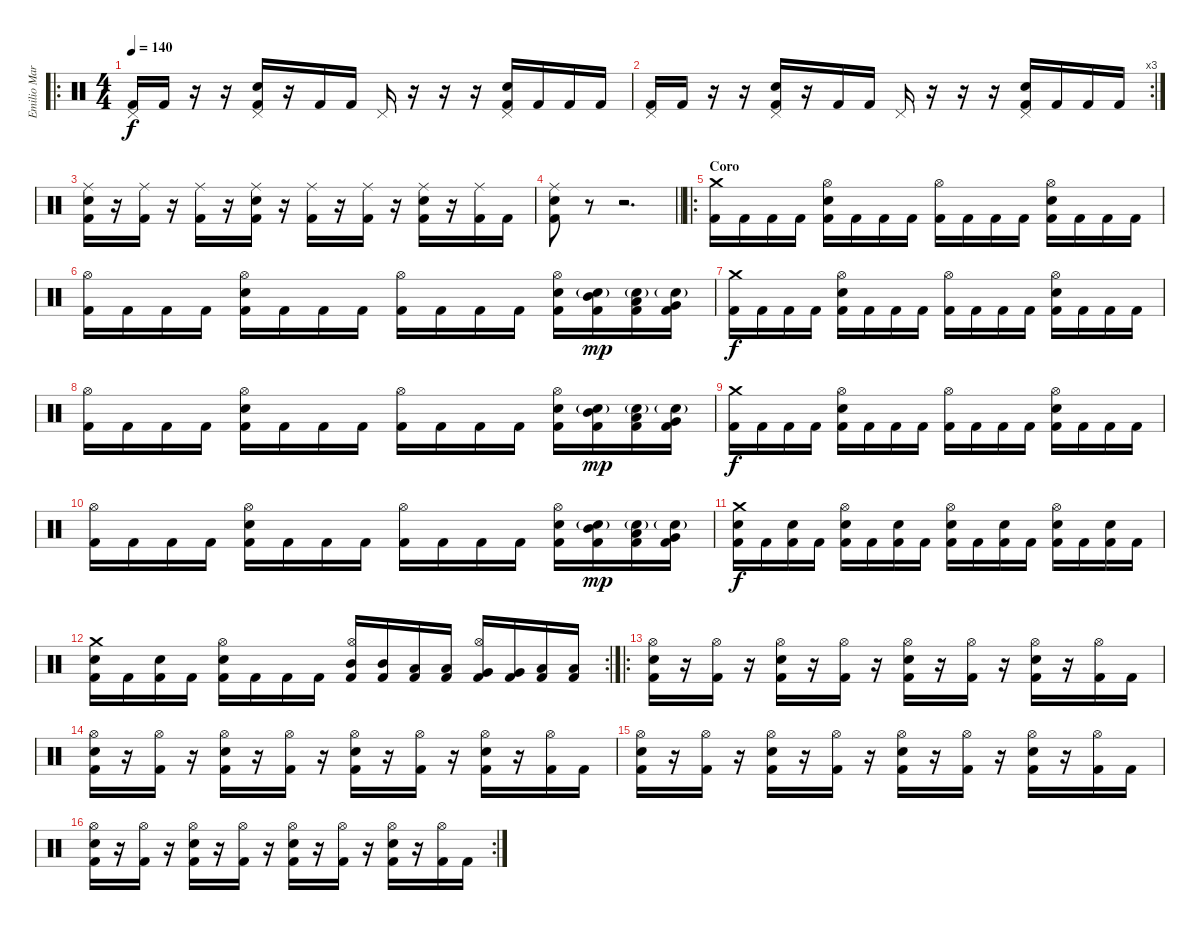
\track ("Emilio Marquez \"El sadistico\"" "Emilio Mar") {instrument percussion}
\staff {score}
\articulation defaults
\ro
\ts (4 4)
\tempo 140
\clef neutral
\ks c
("Pedal Hi-Hat (hit)" "Kick (hit) 2").16{dy f} "Kick (hit) 2".16 r.16 r.16 ("Electric Snare (hit)" "Pedal Hi-Hat (hit)" "Kick (hit) 2").16 r.16 "Kick (hit) 2".16 "Kick (hit) 2".16 "Pedal Hi-Hat (hit)".16 r.16 r.16 r.16 ("Electric Snare (hit)" "Pedal Hi-Hat (hit)" "Kick (hit) 2").16 "Kick (hit) 2".16 "Kick (hit) 2".16 "Kick (hit) 2".16 |
\rc 3
("Pedal Hi-Hat (hit)" "Kick (hit) 2").16 "Kick (hit) 2".16 r.16 r.16 ("Electric Snare (hit)" "Pedal Hi-Hat (hit)" "Kick (hit) 2").16 r.16 "Kick (hit) 2".16 "Kick (hit) 2".16 "Pedal Hi-Hat (hit)".16 r.16 r.16 r.16 ("Electric Snare (hit)" "Pedal Hi-Hat (hit)" "Kick (hit) 2").16 "Kick (hit) 2".16 "Kick (hit) 2".16 "Kick (hit) 2".16 |
("Ride (middle)" "Electric Snare (hit)" "Kick (hit) 2").16 r.16 ("Ride (middle)" "Kick (hit) 2").16 r.16 ("Ride (middle)" "Kick (hit) 2").16 r.16 ("Ride (middle)" "Electric Snare (hit)" "Kick (hit) 2").16 r.16 ("Ride (middle)" "Kick (hit) 2").16 r.16 ("Ride (middle)" "Kick (hit) 2").16 r.16 ("Ride (middle)" "Electric Snare (hit)" "Kick (hit) 2").16 r.16 ("Ride (middle)" "Kick (hit) 2").16 "Kick (hit) 2".16 |
\barLineRight lightlight
("Ride (middle)" "Electric Snare (hit)" "Kick (hit) 2").8 r.8 r.2{d} |
\ro
\section ("" "Coro")
("Crash medium (hit)" "Kick (hit) 2").16 "Kick (hit) 2".16 "Kick (hit) 2".16 "Kick (hit) 2".16 ("Hi-Hat (open)" "Electric Snare (hit)" "Kick (hit) 2").16 "Kick (hit) 2".16 "Kick (hit) 2".16 "Kick (hit) 2".16 ("Hi-Hat (open)" "Kick (hit) 2").16 "Kick (hit) 2".16 "Kick (hit) 2".16 "Kick (hit) 2".16 ("Hi-Hat (open)" "Electric Snare (hit)" "Kick (hit) 2").16 "Kick (hit) 2".16 "Kick (hit) 2".16 "Kick (hit) 2".16 |
("Hi-Hat (open)" "Kick (hit) 2").16 "Kick (hit) 2".16 "Kick (hit) 2".16 "Kick (hit) 2".16 ("Hi-Hat (open)" "Electric Snare (hit)" "Kick (hit) 2").16 "Kick (hit) 2".16 "Kick (hit) 2".16 "Kick (hit) 2".16 ("Hi-Hat (open)" "Kick (hit) 2").16 "Kick (hit) 2".16 "Kick (hit) 2".16 "Kick (hit) 2".16 ("Hi-Hat (open)" "Electric Snare (hit)" "Kick (hit) 2").16 ("Electric Snare (hit)"{g} "Mid Tom (hit)" "Kick (hit) 2").16{dy mp} ("Electric Snare (hit)"{g} "Low Tom (hit)" "Kick (hit) 2").16 ("Electric Snare (hit)"{g} "Very Low Tom (hit)" "Kick (hit) 2").16 |
("Crash medium (hit)" "Kick (hit) 2").16{dy f} "Kick (hit) 2".16 "Kick (hit) 2".16 "Kick (hit) 2".16 ("Hi-Hat (open)" "Electric Snare (hit)" "Kick (hit) 2").16 "Kick (hit) 2".16 "Kick (hit) 2".16 "Kick (hit) 2".16 ("Hi-Hat (open)" "Kick (hit) 2").16 "Kick (hit) 2".16 "Kick (hit) 2".16 "Kick (hit) 2".16 ("Hi-Hat (open)" "Electric Snare (hit)" "Kick (hit) 2").16 "Kick (hit) 2".16 "Kick (hit) 2".16 "Kick (hit) 2".16 |
("Hi-Hat (open)" "Kick (hit) 2").16 "Kick (hit) 2".16 "Kick (hit) 2".16 "Kick (hit) 2".16 ("Hi-Hat (open)" "Electric Snare (hit)" "Kick (hit) 2").16 "Kick (hit) 2".16 "Kick (hit) 2".16 "Kick (hit) 2".16 ("Hi-Hat (open)" "Kick (hit) 2").16 "Kick (hit) 2".16 "Kick (hit) 2".16 "Kick (hit) 2".16 ("Hi-Hat (open)" "Electric Snare (hit)" "Kick (hit) 2").16 ("Electric Snare (hit)"{g} "Mid Tom (hit)" "Kick (hit) 2").16{dy mp} ("Electric Snare (hit)"{g} "Low Tom (hit)" "Kick (hit) 2").16 ("Electric Snare (hit)"{g} "Very Low Tom (hit)" "Kick (hit) 2").16 |
("Crash medium (hit)" "Kick (hit) 2").16{dy f} "Kick (hit) 2".16 "Kick (hit) 2".16 "Kick (hit) 2".16 ("Hi-Hat (open)" "Electric Snare (hit)" "Kick (hit) 2").16 "Kick (hit) 2".16 "Kick (hit) 2".16 "Kick (hit) 2".16 ("Hi-Hat (open)" "Kick (hit) 2").16 "Kick (hit) 2".16 "Kick (hit) 2".16 "Kick (hit) 2".16 ("Hi-Hat (open)" "Electric Snare (hit)" "Kick (hit) 2").16 "Kick (hit) 2".16 "Kick (hit) 2".16 "Kick (hit) 2".16 |
("Hi-Hat (open)" "Kick (hit) 2").16 "Kick (hit) 2".16 "Kick (hit) 2".16 "Kick (hit) 2".16 ("Hi-Hat (open)" "Electric Snare (hit)" "Kick (hit) 2").16 "Kick (hit) 2".16 "Kick (hit) 2".16 "Kick (hit) 2".16 ("Hi-Hat (open)" "Kick (hit) 2").16 "Kick (hit) 2".16 "Kick (hit) 2".16 "Kick (hit) 2".16 ("Hi-Hat (open)" "Electric Snare (hit)" "Kick (hit) 2").16 ("Electric Snare (hit)"{g} "Mid Tom (hit)" "Kick (hit) 2").16{dy mp} ("Electric Snare (hit)"{g} "Low Tom (hit)" "Kick (hit) 2").16 ("Electric Snare (hit)"{g} "Very Low Tom (hit)" "Kick (hit) 2").16 |
("Crash medium (hit)" "Electric Snare (hit)" "Kick (hit) 2").16{dy f} "Kick (hit) 2".16 ("Electric Snare (hit)" "Kick (hit) 2").16 "Kick (hit) 2".16 ("Hi-Hat (open)" "Electric Snare (hit)" "Kick (hit) 2").16 "Kick (hit) 2".16 ("Electric Snare (hit)" "Kick (hit) 2").16 "Kick (hit) 2".16 ("Hi-Hat (open)" "Electric Snare (hit)" "Kick (hit) 2").16 "Kick (hit) 2".16 ("Electric Snare (hit)" "Kick (hit) 2").16 "Kick (hit) 2".16 ("Hi-Hat (open)" "Electric Snare (hit)" "Kick (hit) 2").16 "Kick (hit) 2".16 ("Electric Snare (hit)" "Kick (hit) 2").16 "Kick (hit) 2".16 |
\rc 2
("Crash medium (hit)" "Electric Snare (hit)" "Kick (hit) 2").16 "Kick (hit) 2".16 ("Electric Snare (hit)" "Kick (hit) 2").16 "Kick (hit) 2".16 ("Hi-Hat (open)" "Electric Snare (hit)" "Kick (hit) 2").16 "Kick (hit) 2".16 "Kick (hit) 2".16 "Kick (hit) 2".16 ("Hi-Hat (open)" "Mid Tom (hit)" "Kick (hit) 2").16 ("Mid Tom (hit)" "Kick (hit) 2").16 ("Low Tom (hit)" "Kick (hit) 2").16 ("Low Tom (hit)" "Kick (hit) 2").16 ("Hi-Hat (open)" "Very Low Tom (hit)" "Kick (hit) 2").16 ("Very Low Tom (hit)" "Kick (hit) 2").16 ("Low Floor Tom (hit)" "Kick (hit) 2").16 ("Low Floor Tom (hit)" "Kick (hit) 2").16 |
\ro
("Hi-Hat (open)" "Electric Snare (hit)" "Kick (hit) 2").16 r.16 ("Hi-Hat (open)" "Kick (hit) 2").16 r.16 ("Hi-Hat (open)" "Electric Snare (hit)" "Kick (hit) 2").16 r.16 ("Hi-Hat (open)" "Kick (hit) 2").16 r.16 ("Hi-Hat (open)" "Electric Snare (hit)" "Kick (hit) 2").16 r.16 ("Hi-Hat (open)" "Kick (hit) 2").16 r.16 ("Hi-Hat (open)" "Electric Snare (hit)" "Kick (hit) 2").16 r.16 ("Hi-Hat (open)" "Kick (hit) 2").16 "Kick (hit) 2".16 |
("Hi-Hat (open)" "Electric Snare (hit)" "Kick (hit) 2").16 r.16 ("Hi-Hat (open)" "Kick (hit) 2").16 r.16 ("Hi-Hat (open)" "Electric Snare (hit)" "Kick (hit) 2").16 r.16 ("Hi-Hat (open)" "Kick (hit) 2").16 r.16 ("Hi-Hat (open)" "Electric Snare (hit)" "Kick (hit) 2").16 r.16 ("Hi-Hat (open)" "Kick (hit) 2").16 r.16 ("Hi-Hat (open)" "Electric Snare (hit)" "Kick (hit) 2").16 r.16 ("Hi-Hat (open)" "Kick (hit) 2").16 "Kick (hit) 2".16 |
("Hi-Hat (open)" "Electric Snare (hit)" "Kick (hit) 2").16 r.16 ("Hi-Hat (open)" "Kick (hit) 2").16 r.16 ("Hi-Hat (open)" "Electric Snare (hit)" "Kick (hit) 2").16 r.16 ("Hi-Hat (open)" "Kick (hit) 2").16 r.16 ("Hi-Hat (open)" "Electric Snare (hit)" "Kick (hit) 2").16 r.16 ("Hi-Hat (open)" "Kick (hit) 2").16 r.16 ("Hi-Hat (open)" "Electric Snare (hit)" "Kick (hit) 2").16 r.16 ("Hi-Hat (open)" "Kick (hit) 2").16 "Kick (hit) 2".16 |
\rc 2
("Hi-Hat (open)" "Electric Snare (hit)" "Kick (hit) 2").16 r.16 ("Hi-Hat (open)" "Kick (hit) 2").16 r.16 ("Hi-Hat (open)" "Electric Snare (hit)" "Kick (hit) 2").16 r.16 ("Hi-Hat (open)" "Kick (hit) 2").16 r.16 ("Hi-Hat (open)" "Electric Snare (hit)" "Kick (hit) 2").16 r.16 ("Hi-Hat (open)" "Kick (hit) 2").16 r.16 ("Hi-Hat (open)" "Electric Snare (hit)" "Kick (hit) 2").16 r.16 ("Hi-Hat (open)" "Kick (hit) 2").16 "Kick (hit) 2".16
